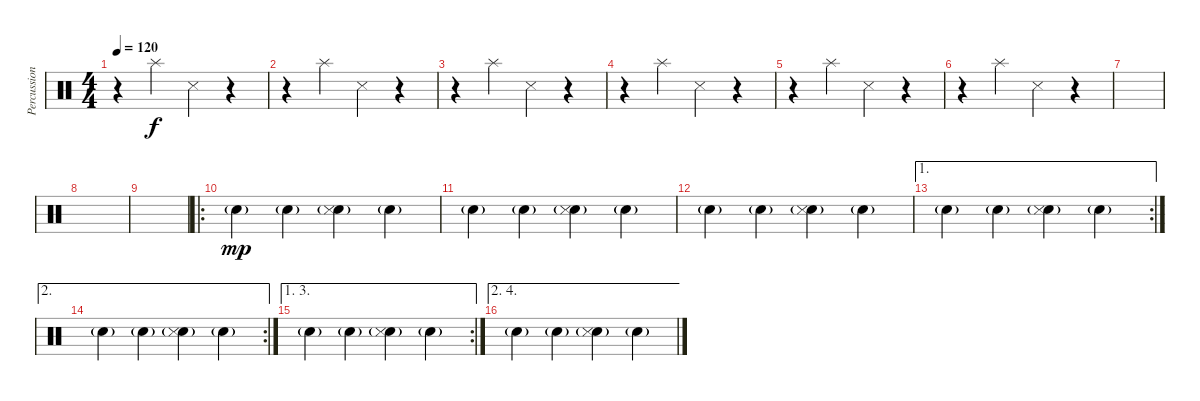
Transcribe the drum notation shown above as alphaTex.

\track ("Percussion" "Percussion") {instrument percussion}
\staff {score}
\articulation defaults
\ts (4 4)
\tempo 120
\clef neutral
\ks c
r.4{dy f} "Splash (hit)".4 "Snare (side stick) 3".4 r.4 |
r.4 "Splash (hit)".4 "Snare (side stick) 3".4 r.4 |
r.4 "Splash (hit)".4 "Snare (side stick) 3".4 r.4 |
r.4 "Splash (hit)".4 "Snare (side stick) 3".4 r.4 |
r.4 "Splash (hit)".4 "Snare (side stick) 3".4 r.4 |
r.4 "Splash (hit)".4 "Snare (side stick) 3".4 r.4 |
|
|
|
\ro "Snare (hit) 2"{g}.4{dy mp} "Snare (hit) 2"{g}.4
("Snare (hit) 2"{g} "Snare (side stick) 3").4 "Snare (hit) 2"{g}.4 |
"Snare (hit) 2"{g}.4 "Snare (hit) 2"{g}.4 ("Snare (hit) 2"{g} "Snare (side stick) 3").4 "Snare (hit) 2"{g}.4 |
"Snare (hit) 2"{g}.4 "Snare (hit) 2"{g}.4 ("Snare (hit) 2"{g} "Snare (side stick) 3").4 "Snare (hit) 2"{g}.4 |
\ae 1
\rc 2 "Snare (hit) 2"{g}.4 "Snare (hit) 2"{g}.4
("Snare (hit) 2"{g} "Snare (side stick) 3").4 "Snare (hit) 2"{g}.4 |
\ae 2
\rc 2 "Snare (hit) 2"{g}.4 "Snare (hit) 2"{g}.4
("Snare (hit) 2"{g} "Snare (side stick) 3").4 "Snare (hit) 2"{g}.4 |
\ae (1 3)
\rc 2 "Snare (hit) 2"{g}.4 "Snare (hit) 2"{g}.4
("Snare (hit) 2"{g} "Snare (side stick) 3").4 "Snare (hit) 2"{g}.4 |
\ae (2 4)
"Snare (hit) 2"{g}.4 "Snare (hit) 2"{g}.4 ("Snare (hit) 2"{g} "Snare (side stick) 3").4 "Snare (hit) 2"{g}.4
